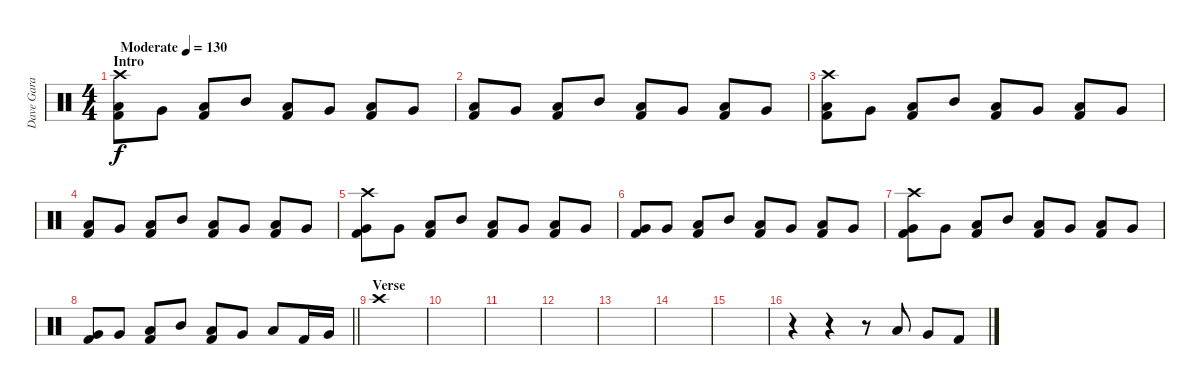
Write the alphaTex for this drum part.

\track ("Dave Gara" "Dave Gara") {instrument percussion}
\staff {score}
\articulation defaults
\ts (4 4)
\section ("" "Intro")
\tempo (130 "Moderate")
\clef neutral
\ks c
("Crash high (hit)" "Low Tom (hit)" "Kick (hit) 2").8{dy f} "Very Low Tom (hit)".8 ("Low Tom (hit)" "Kick (hit) 2").8 "Mid Tom (hit)".8 ("Low Tom (hit)" "Kick (hit) 2").8 "Very Low Tom (hit)".8 ("Low Tom (hit)" "Kick (hit) 2").8 "Very Low Tom (hit)".8 |
("Low Tom (hit)" "Kick (hit) 2").8 "Very Low Tom (hit)".8 ("Low Tom (hit)" "Kick (hit) 2").8 "Mid Tom (hit)".8 ("Low Tom (hit)" "Kick (hit) 2").8 "Very Low Tom (hit)".8 ("Low Tom (hit)" "Kick (hit) 2").8 "Very Low Tom (hit)".8 |
("Crash high (hit)" "Low Tom (hit)" "Kick (hit) 2").8 "Very Low Tom (hit)".8 ("Low Tom (hit)" "Kick (hit) 2").8 "Mid Tom (hit)".8 ("Low Tom (hit)" "Kick (hit) 2").8 "Very Low Tom (hit)".8 ("Low Tom (hit)" "Kick (hit) 2").8 "Very Low Tom (hit)".8 |
("Low Tom (hit)" "Kick (hit) 2").8 "Very Low Tom (hit)".8 ("Low Tom (hit)" "Kick (hit) 2").8 "Mid Tom (hit)".8 ("Low Tom (hit)" "Kick (hit) 2").8 "Very Low Tom (hit)".8 ("Low Tom (hit)" "Kick (hit) 2").8 "Very Low Tom (hit)".8 |
("Crash high (hit)" "Very Low Tom (hit)" "Kick (hit) 2").8 "Very Low Tom (hit)".8 ("Low Tom (hit)" "Kick (hit) 2").8 "Mid Tom (hit)".8 ("Low Tom (hit)" "Kick (hit) 2").8 "Very Low Tom (hit)".8 ("Low Tom (hit)" "Kick (hit) 2").8 "Very Low Tom (hit)".8 |
("Very Low Tom (hit)" "Kick (hit) 2").8 "Very Low Tom (hit)".8 ("Low Tom (hit)" "Kick (hit) 2").8 "Mid Tom (hit)".8 ("Low Tom (hit)" "Kick (hit) 2").8 "Very Low Tom (hit)".8 ("Low Tom (hit)" "Kick (hit) 2").8 "Very Low Tom (hit)".8 |
("Crash high (hit)" "Very Low Tom (hit)" "Kick (hit) 2").8 "Very Low Tom (hit)".8 ("Low Tom (hit)" "Kick (hit) 2").8 "Mid Tom (hit)".8 ("Low Tom (hit)" "Kick (hit) 2").8 "Very Low Tom (hit)".8 ("Low Tom (hit)" "Kick (hit) 2").8 "Very Low Tom (hit)".8 |
\barLineRight lightlight
("Very Low Tom (hit)" "Kick (hit) 2").8 "Very Low Tom (hit)".8 ("Low Tom (hit)" "Kick (hit) 2").8 "Mid Tom (hit)".8 ("Low Tom (hit)" "Kick (hit) 2").8 "Very Low Tom (hit)".8 "Low Tom (hit)".8 "Kick (hit) 2".16 "Very Low Tom (hit)".16 |
\section ("" "Verse")
"Crash high (hit)".1 |
|
|
|
|
|
|
r.4 r.4 r.8 "Low Tom (hit)".8 "Very Low Tom (hit)".8 "Kick (hit) 2".8
